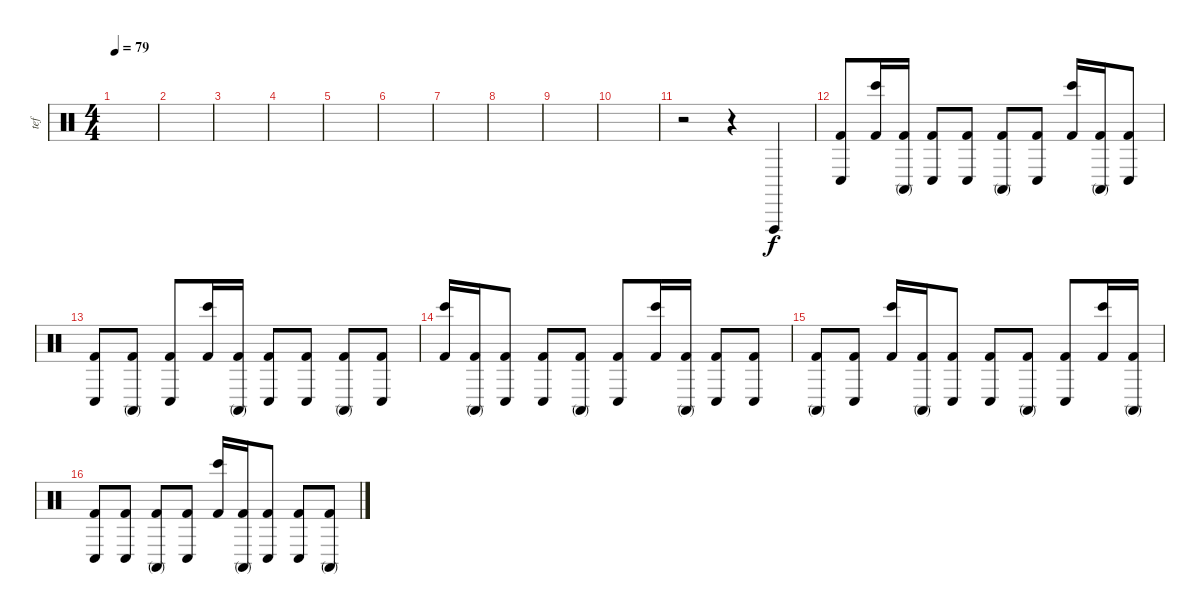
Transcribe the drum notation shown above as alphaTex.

\track ("tef" "tef") {instrument percussion}
\staff {score}
\articulation defaults
\ts (4 4)
\tempo 79
\clef neutral
\ks c
|
|
|
|
|
|
|
|
|
|
r.2 r.4 "Vibraslap (hit)".4 |
("Conga low (hit)" "Kick (hit) 2").8 ("Bongo High (hit)" "Kick (hit) 2").16 ("Conga high (mute)" "Kick (hit) 2").16 ("Conga low (hit)" "Kick (hit) 2").8 ("Conga low (hit)" "Kick (hit) 2").8 ("Conga high (mute)" "Kick (hit) 2").8 ("Conga low (hit)" "Kick (hit) 2").8 ("Bongo High (hit)" "Kick (hit) 2").16 ("Conga high (mute)" "Kick (hit) 2").16 ("Conga low (hit)" "Kick (hit) 2").8 |
("Conga low (hit)" "Kick (hit) 2").8 ("Conga high (mute)" "Kick (hit) 2").8 ("Conga low (hit)" "Kick (hit) 2").8 ("Bongo High (hit)" "Kick (hit) 2").16 ("Conga high (mute)" "Kick (hit) 2").16 ("Conga low (hit)" "Kick (hit) 2").8 ("Conga low (hit)" "Kick (hit) 2").8 ("Conga high (mute)" "Kick (hit) 2").8 ("Conga low (hit)" "Kick (hit) 2").8 |
("Bongo High (hit)" "Kick (hit) 2").16 ("Conga high (mute)" "Kick (hit) 2").16 ("Conga low (hit)" "Kick (hit) 2").8 ("Conga low (hit)" "Kick (hit) 2").8 ("Conga high (mute)" "Kick (hit) 2").8 ("Conga low (hit)" "Kick (hit) 2").8 ("Bongo High (hit)" "Kick (hit) 2").16 ("Conga high (mute)" "Kick (hit) 2").16 ("Conga low (hit)" "Kick (hit) 2").8 ("Conga low (hit)" "Kick (hit) 2").8 |
("Conga high (mute)" "Kick (hit) 2").8 ("Conga low (hit)" "Kick (hit) 2").8 ("Bongo High (hit)" "Kick (hit) 2").16 ("Conga high (mute)" "Kick (hit) 2").16 ("Conga low (hit)" "Kick (hit) 2").8 ("Conga low (hit)" "Kick (hit) 2").8 ("Conga high (mute)" "Kick (hit) 2").8 ("Conga low (hit)" "Kick (hit) 2").8 ("Bongo High (hit)" "Kick (hit) 2").16 ("Conga high (mute)" "Kick (hit) 2").16 |
("Conga low (hit)" "Kick (hit) 2").8 ("Conga low (hit)" "Kick (hit) 2").8 ("Conga high (mute)" "Kick (hit) 2").8 ("Conga low (hit)" "Kick (hit) 2").8 ("Bongo High (hit)" "Kick (hit) 2").16 ("Conga high (mute)" "Kick (hit) 2").16 ("Conga low (hit)" "Kick (hit) 2").8 ("Conga low (hit)" "Kick (hit) 2").8 ("Conga high (mute)" "Kick (hit) 2").8
